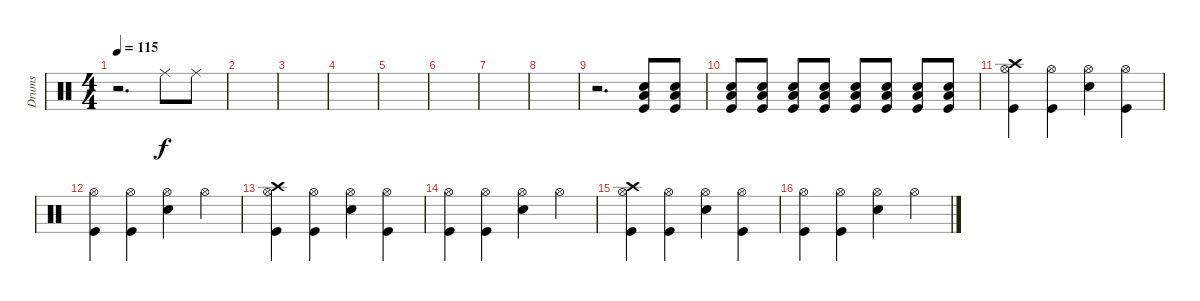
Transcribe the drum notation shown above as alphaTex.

\track ("Drums" "Drums") {instrument percussion}
\staff {score}
\articulation defaults
\ts (4 4)
\tempo 115
\clef neutral
\ks c
r.2{d dy f} "Ride (middle)".8 "Ride (middle)".8 |
|
|
|
|
|
|
|
r.2{d} ("Snare (hit) 2" "Low Floor Tom (hit)" "Kick (hit)").8 ("Snare (hit) 2" "Low Floor Tom (hit)" "Kick (hit)").8 |
("Snare (hit) 2" "Low Floor Tom (hit)" "Kick (hit)").8 ("Snare (hit) 2" "Low Floor Tom (hit)" "Kick (hit)").8 ("Snare (hit) 2" "Low Floor Tom (hit)" "Kick (hit)").8 ("Snare (hit) 2" "Low Floor Tom (hit)" "Kick (hit)").8 ("Snare (hit) 2" "Low Floor Tom (hit)" "Kick (hit)").8 ("Snare (hit) 2" "Low Floor Tom (hit)" "Kick (hit)").8 ("Snare (hit) 2" "Low Floor Tom (hit)" "Kick (hit)").8 ("Snare (hit) 2" "Low Floor Tom (hit)" "Kick (hit)").8 |
("Crash high (hit)" "Hi-Hat (open)" "Kick (hit)").4 ("Hi-Hat (open)" "Kick (hit)").4 ("Hi-Hat (open)" "Snare (hit) 2").4 ("Hi-Hat (open)" "Kick (hit)").4 |
("Hi-Hat (open)" "Kick (hit)").4 ("Hi-Hat (open)" "Kick (hit)").4 ("Hi-Hat (open)" "Snare (hit) 2").4 "Hi-Hat (open)".4 |
("Crash high (hit)" "Hi-Hat (open)" "Kick (hit)").4 ("Hi-Hat (open)" "Kick (hit)").4 ("Hi-Hat (open)" "Snare (hit) 2").4 ("Hi-Hat (open)" "Kick (hit)").4 |
("Hi-Hat (open)" "Kick (hit)").4 ("Hi-Hat (open)" "Kick (hit)").4 ("Hi-Hat (open)" "Snare (hit) 2").4 "Hi-Hat (open)".4 |
("Crash high (hit)" "Hi-Hat (open)" "Kick (hit)").4 ("Hi-Hat (open)" "Kick (hit)").4 ("Hi-Hat (open)" "Snare (hit) 2").4 ("Hi-Hat (open)" "Kick (hit)").4 |
("Hi-Hat (open)" "Kick (hit)").4 ("Hi-Hat (open)" "Kick (hit)").4 ("Hi-Hat (open)" "Snare (hit) 2").4 "Hi-Hat (open)".4
